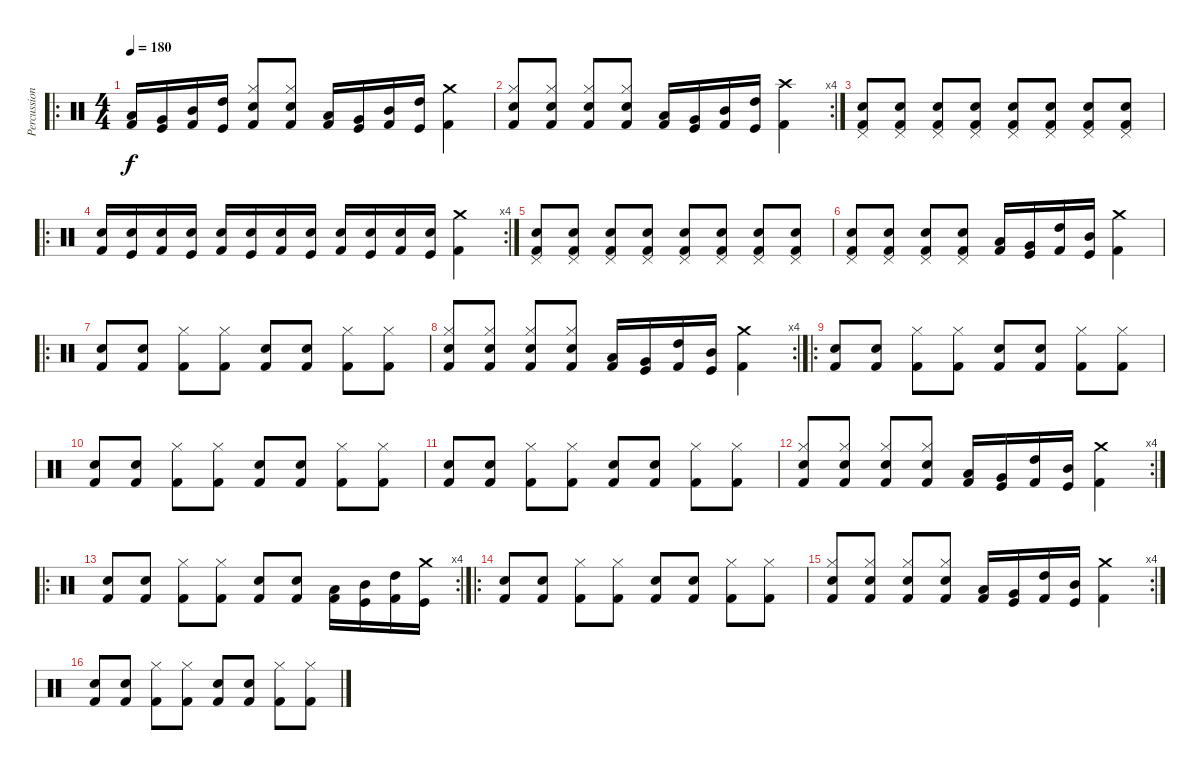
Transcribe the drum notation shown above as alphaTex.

\track ("Percussion" "Percussion") {instrument percussion}
\staff {score}
\articulation defaults
\ro
\ts (4 4)
\tempo 180
\clef neutral
\ks c
("Low Floor Tom (hit)" "Kick (hit) 2").16{dy f} ("Very Low Tom (hit)" "Kick (hit)").16 ("Mid Tom (hit)" "Kick (hit) 2").16 ("High Tom (hit)" "Kick (hit)").16 ("Hi-Hat (closed)" "Electric Snare (hit)" "Kick (hit) 2").8 ("Hi-Hat (closed)" "Electric Snare (hit)" "Kick (hit) 2").8 ("Low Floor Tom (hit)" "Kick (hit) 2").16 ("Very Low Tom (hit)" "Kick (hit)").16 ("Mid Tom (hit)" "Kick (hit) 2").16 ("High Tom (hit)" "Kick (hit)").16 ("Crash medium (hit)" "Kick (hit) 2").4 |
\rc 4
("Hi-Hat (closed)" "Electric Snare (hit)" "Kick (hit) 2").8 ("Hi-Hat (closed)" "Electric Snare (hit)" "Kick (hit) 2").8 ("Hi-Hat (closed)" "Electric Snare (hit)" "Kick (hit) 2").8 ("Hi-Hat (closed)" "Electric Snare (hit)" "Kick (hit) 2").8 ("Low Floor Tom (hit)" "Kick (hit) 2").16 ("Very Low Tom (hit)" "Kick (hit)").16 ("Mid Tom (hit)" "Kick (hit) 2").16 ("High Tom (hit)" "Kick (hit)").16 ("Crash high (hit)" "Kick (hit) 2").4 |
("Pedal Hi-Hat (hit)" "Electric Snare (hit)" "Kick (hit) 2").8 ("Pedal Hi-Hat (hit)" "Electric Snare (hit)" "Kick (hit) 2").8 ("Pedal Hi-Hat (hit)" "Electric Snare (hit)" "Kick (hit) 2").8 ("Pedal Hi-Hat (hit)" "Electric Snare (hit)" "Kick (hit) 2").8 ("Pedal Hi-Hat (hit)" "Electric Snare (hit)" "Kick (hit) 2").8 ("Pedal Hi-Hat (hit)" "Electric Snare (hit)" "Kick (hit) 2").8 ("Pedal Hi-Hat (hit)" "Electric Snare (hit)" "Kick (hit) 2").8 ("Pedal Hi-Hat (hit)" "Electric Snare (hit)" "Kick (hit) 2").8 |
\ro
\rc 4
("Electric Snare (hit)" "Kick (hit) 2").16{volume 5} ("Electric Snare (hit)" "Kick (hit)").16 ("Electric Snare (hit)" "Kick (hit) 2").16 ("Electric Snare (hit)" "Kick (hit)").16 ("Electric Snare (hit)" "Kick (hit) 2").16 ("Electric Snare (hit)" "Kick (hit)").16 ("Electric Snare (hit)" "Kick (hit) 2").16 ("Electric Snare (hit)" "Kick (hit)").16 ("Electric Snare (hit)" "Kick (hit) 2").16 ("Electric Snare (hit)" "Kick (hit)").16 ("Electric Snare (hit)" "Kick (hit) 2").16 ("Electric Snare (hit)" "Kick (hit)").16 ("Crash medium (hit)" "Kick (hit) 2").4 |
("Pedal Hi-Hat (hit)" "Electric Snare (hit)" "Kick (hit) 2").8{volume 13} ("Pedal Hi-Hat (hit)" "Electric Snare (hit)" "Kick (hit) 2").8 ("Pedal Hi-Hat (hit)" "Electric Snare (hit)" "Kick (hit) 2").8 ("Pedal Hi-Hat (hit)" "Electric Snare (hit)" "Kick (hit) 2").8 ("Pedal Hi-Hat (hit)" "Electric Snare (hit)" "Kick (hit) 2").8 ("Pedal Hi-Hat (hit)" "Electric Snare (hit)" "Kick (hit) 2").8 ("Pedal Hi-Hat (hit)" "Electric Snare (hit)" "Kick (hit) 2").8 ("Pedal Hi-Hat (hit)" "Electric Snare (hit)" "Kick (hit) 2").8 |
("Pedal Hi-Hat (hit)" "Electric Snare (hit)" "Kick (hit) 2").8 ("Pedal Hi-Hat (hit)" "Electric Snare (hit)" "Kick (hit) 2").8 ("Pedal Hi-Hat (hit)" "Electric Snare (hit)" "Kick (hit) 2").8 ("Pedal Hi-Hat (hit)" "Electric Snare (hit)" "Kick (hit) 2").8 ("Low Floor Tom (hit)" "Kick (hit) 2").16 ("Very Low Tom (hit)" "Kick (hit)").16 ("High Tom (hit)" "Kick (hit) 2").16 ("Mid Tom (hit)" "Kick (hit)").16 ("Crash medium (hit)" "Kick (hit) 2").4 |
\ro
("Electric Snare (hit)" "Kick (hit) 2").8 ("Electric Snare (hit)" "Kick (hit) 2").8 ("Hi-Hat (closed)" "Kick (hit) 2").8 ("Hi-Hat (closed)" "Kick (hit) 2").8 ("Electric Snare (hit)" "Kick (hit) 2").8 ("Electric Snare (hit)" "Kick (hit) 2").8 ("Hi-Hat (closed)" "Kick (hit) 2").8 ("Hi-Hat (closed)" "Kick (hit) 2").8 |
\rc 4
("Hi-Hat (closed)" "Electric Snare (hit)" "Kick (hit) 2").8 ("Hi-Hat (closed)" "Electric Snare (hit)" "Kick (hit) 2").8 ("Hi-Hat (closed)" "Electric Snare (hit)" "Kick (hit) 2").8 ("Hi-Hat (closed)" "Electric Snare (hit)" "Kick (hit) 2").8 ("Low Floor Tom (hit)" "Kick (hit) 2").16 ("Very Low Tom (hit)" "Kick (hit)").16 ("High Tom (hit)" "Kick (hit) 2").16 ("Mid Tom (hit)" "Kick (hit)").16 ("Crash medium (hit)" "Kick (hit) 2").4 |
\ro
("Electric Snare (hit)" "Kick (hit) 2").8 ("Electric Snare (hit)" "Kick (hit) 2").8 ("Hi-Hat (closed)" "Kick (hit) 2").8 ("Hi-Hat (closed)" "Kick (hit) 2").8 ("Electric Snare (hit)" "Kick (hit) 2").8 ("Electric Snare (hit)" "Kick (hit) 2").8 ("Hi-Hat (closed)" "Kick (hit) 2").8 ("Hi-Hat (closed)" "Kick (hit) 2").8 |
("Electric Snare (hit)" "Kick (hit) 2").8 ("Electric Snare (hit)" "Kick (hit) 2").8 ("Hi-Hat (closed)" "Kick (hit) 2").8 ("Hi-Hat (closed)" "Kick (hit) 2").8 ("Electric Snare (hit)" "Kick (hit) 2").8 ("Electric Snare (hit)" "Kick (hit) 2").8 ("Hi-Hat (closed)" "Kick (hit) 2").8 ("Hi-Hat (closed)" "Kick (hit) 2").8 |
("Electric Snare (hit)" "Kick (hit) 2").8 ("Electric Snare (hit)" "Kick (hit) 2").8 ("Hi-Hat (closed)" "Kick (hit) 2").8 ("Hi-Hat (closed)" "Kick (hit) 2").8 ("Electric Snare (hit)" "Kick (hit) 2").8 ("Electric Snare (hit)" "Kick (hit) 2").8 ("Hi-Hat (closed)" "Kick (hit) 2").8 ("Hi-Hat (closed)" "Kick (hit) 2").8 |
\rc 4
("Hi-Hat (closed)" "Electric Snare (hit)" "Kick (hit) 2").8 ("Hi-Hat (closed)" "Electric Snare (hit)" "Kick (hit) 2").8 ("Hi-Hat (closed)" "Electric Snare (hit)" "Kick (hit) 2").8 ("Hi-Hat (closed)" "Electric Snare (hit)" "Kick (hit) 2").8 ("Low Floor Tom (hit)" "Kick (hit) 2").16 ("Very Low Tom (hit)" "Kick (hit)").16 ("High Tom (hit)" "Kick (hit) 2").16 ("Mid Tom (hit)" "Kick (hit)").16 ("Crash medium (hit)" "Kick (hit) 2").4 |
\ro
\rc 4
("Electric Snare (hit)" "Kick (hit) 2").8 ("Electric Snare (hit)" "Kick (hit) 2").8 ("Hi-Hat (closed)" "Kick (hit) 2").8 ("Hi-Hat (closed)" "Kick (hit) 2").8 ("Electric Snare (hit)" "Kick (hit) 2").8 ("Electric Snare (hit)" "Kick (hit) 2").8 ("Low Floor Tom (hit)" "Kick (hit) 2").16 ("Mid Tom (hit)" "Kick (hit)").16 ("High Tom (hit)" "Kick (hit) 2").16 ("Crash medium (hit)" "Kick (hit)").16 |
\ro
("Electric Snare (hit)" "Kick (hit) 2").8 ("Electric Snare (hit)" "Kick (hit) 2").8 ("Hi-Hat (closed)" "Kick (hit) 2").8 ("Hi-Hat (closed)" "Kick (hit) 2").8 ("Electric Snare (hit)" "Kick (hit) 2").8 ("Electric Snare (hit)" "Kick (hit) 2").8 ("Hi-Hat (closed)" "Kick (hit) 2").8 ("Hi-Hat (closed)" "Kick (hit) 2").8 |
\rc 4
("Hi-Hat (closed)" "Electric Snare (hit)" "Kick (hit) 2").8 ("Hi-Hat (closed)" "Electric Snare (hit)" "Kick (hit) 2").8 ("Hi-Hat (closed)" "Electric Snare (hit)" "Kick (hit) 2").8 ("Hi-Hat (closed)" "Electric Snare (hit)" "Kick (hit) 2").8 ("Low Floor Tom (hit)" "Kick (hit) 2").16 ("Very Low Tom (hit)" "Kick (hit)").16 ("High Tom (hit)" "Kick (hit) 2").16 ("Mid Tom (hit)" "Kick (hit)").16 ("Crash medium (hit)" "Kick (hit) 2").4 |
("Electric Snare (hit)" "Kick (hit) 2").8 ("Electric Snare (hit)" "Kick (hit) 2").8 ("Hi-Hat (closed)" "Kick (hit) 2").8 ("Hi-Hat (closed)" "Kick (hit) 2").8 ("Electric Snare (hit)" "Kick (hit) 2").8 ("Electric Snare (hit)" "Kick (hit) 2").8 ("Hi-Hat (closed)" "Kick (hit) 2").8 ("Hi-Hat (closed)" "Kick (hit) 2").8
